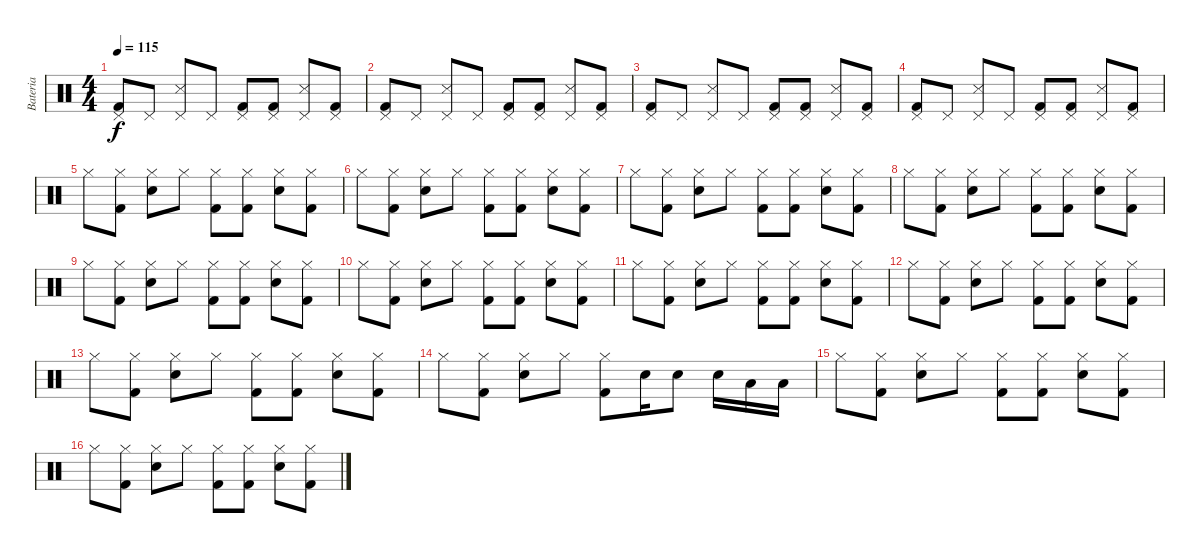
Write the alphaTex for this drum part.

\track ("Bateria" "Bateria") {instrument percussion}
\staff {score}
\articulation defaults
\ts (4 4)
\tempo 115
\clef neutral
\ks c
("Pedal Hi-Hat (hit)" "Kick (hit) 2").8{dy f} "Pedal Hi-Hat (hit)".8 ("Pedal Hi-Hat (hit)" "Snare (side stick) 3").8 "Pedal Hi-Hat (hit)".8 ("Pedal Hi-Hat (hit)" "Kick (hit) 2").8 ("Pedal Hi-Hat (hit)" "Kick (hit) 2").8 ("Pedal Hi-Hat (hit)" "Snare (side stick) 3").8 ("Pedal Hi-Hat (hit)" "Kick (hit) 2").8 |
("Pedal Hi-Hat (hit)" "Kick (hit) 2").8 "Pedal Hi-Hat (hit)".8 ("Pedal Hi-Hat (hit)" "Snare (side stick) 3").8 "Pedal Hi-Hat (hit)".8 ("Pedal Hi-Hat (hit)" "Kick (hit) 2").8 ("Pedal Hi-Hat (hit)" "Kick (hit) 2").8 ("Pedal Hi-Hat (hit)" "Snare (side stick) 3").8 ("Pedal Hi-Hat (hit)" "Kick (hit) 2").8 |
("Pedal Hi-Hat (hit)" "Kick (hit) 2").8 "Pedal Hi-Hat (hit)".8 ("Pedal Hi-Hat (hit)" "Snare (side stick) 3").8 "Pedal Hi-Hat (hit)".8 ("Pedal Hi-Hat (hit)" "Kick (hit) 2").8 ("Pedal Hi-Hat (hit)" "Kick (hit) 2").8 ("Pedal Hi-Hat (hit)" "Snare (side stick) 3").8 ("Pedal Hi-Hat (hit)" "Kick (hit) 2").8 |
("Pedal Hi-Hat (hit)" "Kick (hit) 2").8 "Pedal Hi-Hat (hit)".8 ("Pedal Hi-Hat (hit)" "Snare (side stick) 3").8 "Pedal Hi-Hat (hit)".8 ("Pedal Hi-Hat (hit)" "Kick (hit) 2").8 ("Pedal Hi-Hat (hit)" "Kick (hit) 2").8 ("Pedal Hi-Hat (hit)" "Snare (side stick) 3").8 ("Pedal Hi-Hat (hit)" "Kick (hit) 2").8 |
"Hi-Hat (closed)".8 ("Hi-Hat (closed)" "Kick (hit) 2").8 ("Hi-Hat (closed)" "Snare (hit) 2").8 "Hi-Hat (closed)".8 ("Hi-Hat (closed)" "Kick (hit) 2").8 ("Hi-Hat (closed)" "Kick (hit) 2").8 ("Hi-Hat (closed)" "Snare (hit) 2").8 ("Hi-Hat (closed)" "Kick (hit) 2").8 |
"Hi-Hat (closed)".8 ("Hi-Hat (closed)" "Kick (hit) 2").8 ("Hi-Hat (closed)" "Snare (hit) 2").8 "Hi-Hat (closed)".8 ("Hi-Hat (closed)" "Kick (hit) 2").8 ("Hi-Hat (closed)" "Kick (hit) 2").8 ("Hi-Hat (closed)" "Snare (hit) 2").8 ("Hi-Hat (closed)" "Kick (hit) 2").8 |
"Hi-Hat (closed)".8 ("Hi-Hat (closed)" "Kick (hit) 2").8 ("Hi-Hat (closed)" "Snare (hit) 2").8 "Hi-Hat (closed)".8 ("Hi-Hat (closed)" "Kick (hit) 2").8 ("Hi-Hat (closed)" "Kick (hit) 2").8 ("Hi-Hat (closed)" "Snare (hit) 2").8 ("Hi-Hat (closed)" "Kick (hit) 2").8 |
"Hi-Hat (closed)".8 ("Hi-Hat (closed)" "Kick (hit) 2").8 ("Hi-Hat (closed)" "Snare (hit) 2").8 "Hi-Hat (closed)".8 ("Hi-Hat (closed)" "Kick (hit) 2").8 ("Hi-Hat (closed)" "Kick (hit) 2").8 ("Hi-Hat (closed)" "Snare (hit) 2").8 ("Hi-Hat (closed)" "Kick (hit) 2").8 |
"Hi-Hat (closed)".8 ("Hi-Hat (closed)" "Kick (hit) 2").8 ("Hi-Hat (closed)" "Snare (hit) 2").8 "Hi-Hat (closed)".8 ("Hi-Hat (closed)" "Kick (hit) 2").8 ("Hi-Hat (closed)" "Kick (hit) 2").8 ("Hi-Hat (closed)" "Snare (hit) 2").8 ("Hi-Hat (closed)" "Kick (hit) 2").8 |
"Hi-Hat (closed)".8 ("Hi-Hat (closed)" "Kick (hit) 2").8 ("Hi-Hat (closed)" "Snare (hit) 2").8 "Hi-Hat (closed)".8 ("Hi-Hat (closed)" "Kick (hit) 2").8 ("Hi-Hat (closed)" "Kick (hit) 2").8 ("Hi-Hat (closed)" "Snare (hit) 2").8 ("Hi-Hat (closed)" "Kick (hit) 2").8 |
"Hi-Hat (closed)".8 ("Hi-Hat (closed)" "Kick (hit) 2").8 ("Hi-Hat (closed)" "Snare (hit) 2").8 "Hi-Hat (closed)".8 ("Hi-Hat (closed)" "Kick (hit) 2").8 ("Hi-Hat (closed)" "Kick (hit) 2").8 ("Hi-Hat (closed)" "Snare (hit) 2").8 ("Hi-Hat (closed)" "Kick (hit) 2").8 |
"Hi-Hat (closed)".8 ("Hi-Hat (closed)" "Kick (hit) 2").8 ("Hi-Hat (closed)" "Snare (hit) 2").8 "Hi-Hat (closed)".8 ("Hi-Hat (closed)" "Kick (hit) 2").8 ("Hi-Hat (closed)" "Kick (hit) 2").8 ("Hi-Hat (closed)" "Snare (hit) 2").8 ("Hi-Hat (closed)" "Kick (hit) 2").8 |
"Hi-Hat (closed)".8 ("Hi-Hat (closed)" "Kick (hit) 2").8 ("Hi-Hat (closed)" "Snare (hit) 2").8 "Hi-Hat (closed)".8 ("Hi-Hat (closed)" "Kick (hit) 2").8 ("Hi-Hat (closed)" "Kick (hit) 2").8 ("Hi-Hat (closed)" "Snare (hit) 2").8 ("Hi-Hat (closed)" "Kick (hit) 2").8 |
"Hi-Hat (closed)".8 ("Hi-Hat (closed)" "Kick (hit) 2").8 ("Hi-Hat (closed)" "Snare (hit) 2").8 "Hi-Hat (closed)".8 ("Hi-Hat (closed)" "Kick (hit) 2").8 "Snare (hit) 2".16 "Snare (hit) 2".8 "Snare (hit) 2".16 "Low Tom (hit)".16 "Low Tom (hit)".16 |
"Hi-Hat (closed)".8 ("Hi-Hat (closed)" "Kick (hit) 2").8 ("Hi-Hat (closed)" "Snare (hit) 2").8 "Hi-Hat (closed)".8 ("Hi-Hat (closed)" "Kick (hit) 2").8 ("Hi-Hat (closed)" "Kick (hit) 2").8 ("Hi-Hat (closed)" "Snare (hit) 2").8 ("Hi-Hat (closed)" "Kick (hit) 2").8 |
"Hi-Hat (closed)".8 ("Hi-Hat (closed)" "Kick (hit) 2").8 ("Hi-Hat (closed)" "Snare (hit) 2").8 "Hi-Hat (closed)".8 ("Hi-Hat (closed)" "Kick (hit) 2").8 ("Hi-Hat (closed)" "Kick (hit) 2").8 ("Hi-Hat (closed)" "Snare (hit) 2").8 ("Hi-Hat (closed)" "Kick (hit) 2").8
